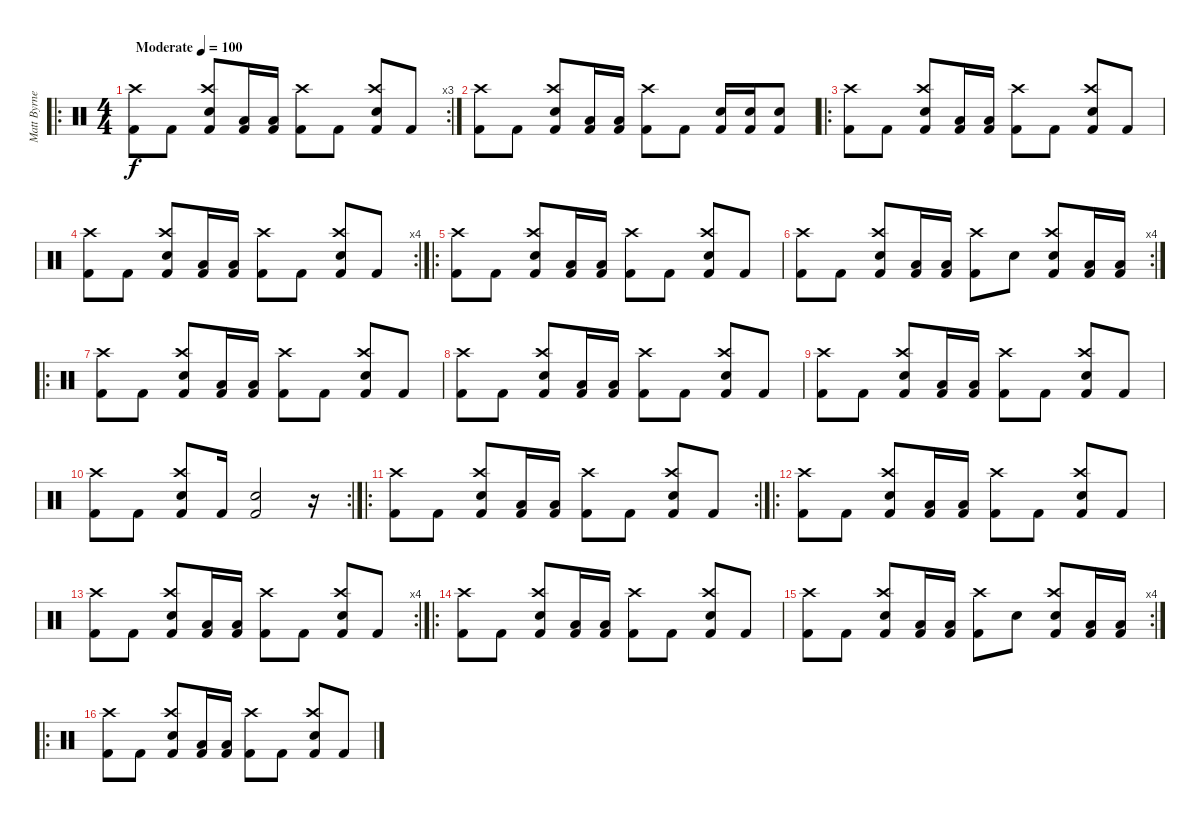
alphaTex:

\track ("Matt Byrne" "Matt Byrne") {instrument percussion}
\staff {score}
\articulation defaults
\ro
\rc 3
\ts (4 4)
\tempo (100 "Moderate")
\clef neutral
\ks c
("Kick (hit) 2" "Crash high (hit)").8{dy f} "Kick (hit) 2".8 ("Crash high (hit)" "Electric Snare (hit)" "Kick (hit) 2").8 ("Low Floor Tom (hit)" "Kick (hit) 2").16 ("Low Floor Tom (hit)" "Kick (hit) 2").16 ("Kick (hit) 2" "Crash high (hit)").8 "Kick (hit) 2".8 ("Crash high (hit)" "Electric Snare (hit)" "Kick (hit) 2").8 "Kick (hit) 2".8 |
("Kick (hit) 2" "Crash high (hit)").8 "Kick (hit) 2".8 ("Crash high (hit)" "Electric Snare (hit)" "Kick (hit) 2").8 ("Low Floor Tom (hit)" "Kick (hit) 2").16 ("Low Floor Tom (hit)" "Kick (hit) 2").16 ("Kick (hit) 2" "Crash high (hit)").8 "Kick (hit) 2".8 ("Electric Snare (hit)" "Kick (hit) 2").16 ("Electric Snare (hit)" "Kick (hit) 2").16 ("Electric Snare (hit)" "Kick (hit) 2").8 |
\ro
("Kick (hit) 2" "Crash high (hit)").8 "Kick (hit) 2".8 ("Crash high (hit)" "Electric Snare (hit)" "Kick (hit) 2").8 ("Low Floor Tom (hit)" "Kick (hit) 2").16 ("Low Floor Tom (hit)" "Kick (hit) 2").16 ("Kick (hit) 2" "Crash high (hit)").8 "Kick (hit) 2".8 ("Crash high (hit)" "Electric Snare (hit)" "Kick (hit) 2").8 "Kick (hit) 2".8 |
\rc 4
("Kick (hit) 2" "Crash high (hit)").8 "Kick (hit) 2".8 ("Crash high (hit)" "Electric Snare (hit)" "Kick (hit) 2").8 ("Low Floor Tom (hit)" "Kick (hit) 2").16 ("Low Floor Tom (hit)" "Kick (hit) 2").16 ("Kick (hit) 2" "Crash high (hit)").8 "Kick (hit) 2".8 ("Crash high (hit)" "Electric Snare (hit)" "Kick (hit) 2").8 "Kick (hit) 2".8 |
\ro
("Kick (hit) 2" "Crash high (hit)").8 "Kick (hit) 2".8 ("Crash high (hit)" "Electric Snare (hit)" "Kick (hit) 2").8 ("Low Floor Tom (hit)" "Kick (hit) 2").16 ("Low Floor Tom (hit)" "Kick (hit) 2").16 ("Kick (hit) 2" "Crash high (hit)").8 "Kick (hit) 2".8 ("Crash high (hit)" "Electric Snare (hit)" "Kick (hit) 2").8 "Kick (hit) 2".8 |
\rc 4
("Kick (hit) 2" "Crash high (hit)").8 "Kick (hit) 2".8 ("Crash high (hit)" "Electric Snare (hit)" "Kick (hit) 2").8 ("Low Floor Tom (hit)" "Kick (hit) 2").16 ("Low Floor Tom (hit)" "Kick (hit) 2").16 ("Kick (hit) 2" "Crash high (hit)").8 "Electric Snare (hit)".8 ("Crash high (hit)" "Electric Snare (hit)" "Kick (hit) 2").8 ("Low Floor Tom (hit)" "Kick (hit) 2").16 ("Low Floor Tom (hit)" "Kick (hit) 2").16 |
\ro
("Kick (hit) 2" "Crash high (hit)").8 "Kick (hit) 2".8 ("Crash high (hit)" "Electric Snare (hit)" "Kick (hit) 2").8 ("Low Floor Tom (hit)" "Kick (hit) 2").16 ("Low Floor Tom (hit)" "Kick (hit) 2").16 ("Kick (hit) 2" "Crash high (hit)").8 "Kick (hit) 2".8 ("Crash high (hit)" "Electric Snare (hit)" "Kick (hit) 2").8 "Kick (hit) 2".8 |
("Kick (hit) 2" "Crash high (hit)").8 "Kick (hit) 2".8 ("Crash high (hit)" "Electric Snare (hit)" "Kick (hit) 2").8 ("Low Floor Tom (hit)" "Kick (hit) 2").16 ("Low Floor Tom (hit)" "Kick (hit) 2").16 ("Kick (hit) 2" "Crash high (hit)").8 "Kick (hit) 2".8 ("Crash high (hit)" "Electric Snare (hit)" "Kick (hit) 2").8 "Kick (hit) 2".8 |
("Kick (hit) 2" "Crash high (hit)").8 "Kick (hit) 2".8 ("Crash high (hit)" "Electric Snare (hit)" "Kick (hit) 2").8 ("Low Floor Tom (hit)" "Kick (hit) 2").16 ("Low Floor Tom (hit)" "Kick (hit) 2").16 ("Kick (hit) 2" "Crash high (hit)").8 "Kick (hit) 2".8 ("Crash high (hit)" "Electric Snare (hit)" "Kick (hit) 2").8 "Kick (hit) 2".8 |
\rc 2
("Kick (hit) 2" "Crash high (hit)").8 "Kick (hit) 2".8 ("Crash high (hit)" "Electric Snare (hit)" "Kick (hit) 2").8 "Kick (hit) 2".16 ("Electric Snare (hit)" "Kick (hit) 2").2 r.16 |
\ro
\rc 2
("Kick (hit) 2" "Crash high (hit)").8 "Kick (hit) 2".8 ("Crash high (hit)" "Electric Snare (hit)" "Kick (hit) 2").8 ("Low Floor Tom (hit)" "Kick (hit) 2").16 ("Low Floor Tom (hit)" "Kick (hit) 2").16 ("Kick (hit) 2" "Crash high (hit)").8 "Kick (hit) 2".8 ("Crash high (hit)" "Electric Snare (hit)" "Kick (hit) 2").8 "Kick (hit) 2".8 |
\ro
("Kick (hit) 2" "Crash high (hit)").8 "Kick (hit) 2".8 ("Crash high (hit)" "Electric Snare (hit)" "Kick (hit) 2").8 ("Low Floor Tom (hit)" "Kick (hit) 2").16 ("Low Floor Tom (hit)" "Kick (hit) 2").16 ("Kick (hit) 2" "Crash high (hit)").8 "Kick (hit) 2".8 ("Crash high (hit)" "Electric Snare (hit)" "Kick (hit) 2").8 "Kick (hit) 2".8 |
\rc 4
("Kick (hit) 2" "Crash high (hit)").8 "Kick (hit) 2".8 ("Crash high (hit)" "Electric Snare (hit)" "Kick (hit) 2").8 ("Low Floor Tom (hit)" "Kick (hit) 2").16 ("Low Floor Tom (hit)" "Kick (hit) 2").16 ("Kick (hit) 2" "Crash high (hit)").8 "Kick (hit) 2".8 ("Crash high (hit)" "Electric Snare (hit)" "Kick (hit) 2").8 "Kick (hit) 2".8 |
\ro
("Kick (hit) 2" "Crash high (hit)").8 "Kick (hit) 2".8 ("Crash high (hit)" "Electric Snare (hit)" "Kick (hit) 2").8 ("Low Floor Tom (hit)" "Kick (hit) 2").16 ("Low Floor Tom (hit)" "Kick (hit) 2").16 ("Kick (hit) 2" "Crash high (hit)").8 "Kick (hit) 2".8 ("Crash high (hit)" "Electric Snare (hit)" "Kick (hit) 2").8 "Kick (hit) 2".8 |
\rc 4
("Kick (hit) 2" "Crash high (hit)").8 "Kick (hit) 2".8 ("Crash high (hit)" "Electric Snare (hit)" "Kick (hit) 2").8 ("Low Floor Tom (hit)" "Kick (hit) 2").16 ("Low Floor Tom (hit)" "Kick (hit) 2").16 ("Kick (hit) 2" "Crash high (hit)").8 "Electric Snare (hit)".8 ("Crash high (hit)" "Electric Snare (hit)" "Kick (hit) 2").8 ("Low Floor Tom (hit)" "Kick (hit) 2").16 ("Low Floor Tom (hit)" "Kick (hit) 2").16 |
\ro
("Kick (hit) 2" "Crash high (hit)").8 "Kick (hit) 2".8 ("Crash high (hit)" "Electric Snare (hit)" "Kick (hit) 2").8 ("Low Floor Tom (hit)" "Kick (hit) 2").16 ("Low Floor Tom (hit)" "Kick (hit) 2").16 ("Kick (hit) 2" "Crash high (hit)").8 "Kick (hit) 2".8 ("Crash high (hit)" "Electric Snare (hit)" "Kick (hit) 2").8 "Kick (hit) 2".8
